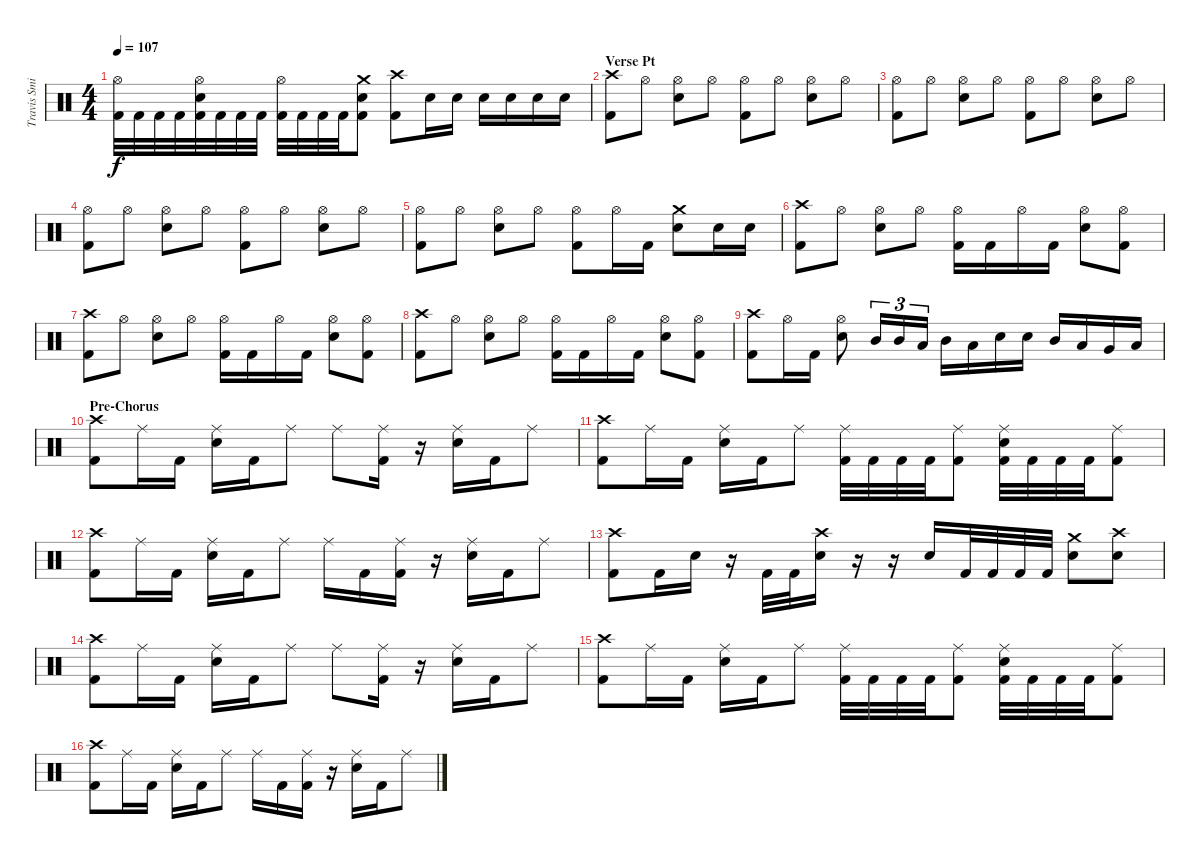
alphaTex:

\track ("Travis Smith" "Travis Smi") {instrument percussion}
\staff {score}
\articulation defaults
\ts (4 4)
\tempo 107
\clef neutral
\ks c
("Hi-Hat (open)" "Kick (hit) 2").32{dy f} "Kick (hit) 2".32 "Kick (hit) 2".32 "Kick (hit) 2".32 ("Hi-Hat (open)" "Electric Snare (hit)" "Kick (hit) 2").32 "Kick (hit) 2".32 "Kick (hit) 2".32 "Kick (hit) 2".32 ("Hi-Hat (open)" "Kick (hit) 2").32 "Kick (hit) 2".32 "Kick (hit) 2".32 "Kick (hit) 2".32 ("Crash medium (hit)" "Electric Snare (hit)" "Kick (hit) 2").8 ("Crash high (hit)" "Kick (hit) 2").8 "Electric Snare (hit)".16 "Electric Snare (hit)".16 "Electric Snare (hit)".16 "Electric Snare (hit)".16 "Electric Snare (hit)".16 "Electric Snare (hit)".16 |
\section ("" "Verse Pt")
("Crash high (hit)" "Kick (hit) 2").8 "Hi-Hat (open)".8 ("Hi-Hat (open)" "Electric Snare (hit)").8 "Hi-Hat (open)".8 ("Hi-Hat (open)" "Kick (hit) 2").8 "Hi-Hat (open)".8 ("Hi-Hat (open)" "Electric Snare (hit)").8 "Hi-Hat (open)".8 |
("Hi-Hat (open)" "Kick (hit) 2").8 "Hi-Hat (open)".8 ("Hi-Hat (open)" "Electric Snare (hit)").8 "Hi-Hat (open)".8 ("Hi-Hat (open)" "Kick (hit) 2").8 "Hi-Hat (open)".8 ("Hi-Hat (open)" "Electric Snare (hit)").8 "Hi-Hat (open)".8 |
("Hi-Hat (open)" "Kick (hit) 2").8 "Hi-Hat (open)".8 ("Hi-Hat (open)" "Electric Snare (hit)").8 "Hi-Hat (open)".8 ("Hi-Hat (open)" "Kick (hit) 2").8 "Hi-Hat (open)".8 ("Hi-Hat (open)" "Electric Snare (hit)").8 "Hi-Hat (open)".8 |
("Hi-Hat (open)" "Kick (hit) 2").8 "Hi-Hat (open)".8 ("Hi-Hat (open)" "Electric Snare (hit)").8 "Hi-Hat (open)".8 ("Hi-Hat (open)" "Kick (hit) 2").8 "Hi-Hat (open)".16 "Kick (hit) 2".16 ("Crash medium (hit)" "Electric Snare (hit)").8 "Electric Snare (hit)".16 "Electric Snare (hit)".16 |
("Crash high (hit)" "Kick (hit) 2").8 "Hi-Hat (open)".8 ("Hi-Hat (open)" "Electric Snare (hit)").8 "Hi-Hat (open)".8 ("Hi-Hat (open)" "Kick (hit) 2").16 "Kick (hit) 2".16 "Hi-Hat (open)".16 "Kick (hit) 2".16 ("Hi-Hat (open)" "Electric Snare (hit)").8 ("Hi-Hat (open)" "Kick (hit) 2").8 |
("Crash high (hit)" "Kick (hit) 2").8 "Hi-Hat (open)".8 ("Hi-Hat (open)" "Electric Snare (hit)").8 "Hi-Hat (open)".8 ("Hi-Hat (open)" "Kick (hit) 2").16 "Kick (hit) 2".16 "Hi-Hat (open)".16 "Kick (hit) 2".16 ("Hi-Hat (open)" "Electric Snare (hit)").8 ("Hi-Hat (open)" "Kick (hit) 2").8 |
("Crash high (hit)" "Kick (hit) 2").8 "Hi-Hat (open)".8 ("Hi-Hat (open)" "Electric Snare (hit)").8 "Hi-Hat (open)".8 ("Hi-Hat (open)" "Kick (hit) 2").16 "Kick (hit) 2".16 "Hi-Hat (open)".16 "Kick (hit) 2".16 ("Hi-Hat (open)" "Electric Snare (hit)").8 ("Hi-Hat (open)" "Kick (hit) 2").8 |
("Crash high (hit)" "Kick (hit) 2").8 "Hi-Hat (open)".16 "Kick (hit) 2".16 ("Hi-Hat (open)" "Electric Snare (hit)").8 "Mid Tom (hit)".16{tu (3 2)} "Mid Tom (hit)".16{tu (3 2)} "Low Tom (hit)".16{tu (3 2)} "Mid Tom (hit)".16 "Low Tom (hit)".16 "Electric Snare (hit)".16 "Electric Snare (hit)".16 "Mid Tom (hit)".16 "Low Tom (hit)".16 "Very Low Tom (hit)".16 "Low Floor Tom (hit)".16 |
\section ("" "Pre-Chorus")
("Crash high (hit)" "Kick (hit) 2").8 "Ride (middle)".16 "Kick (hit) 2".16 ("Ride (middle)" "Electric Snare (hit)").16 "Kick (hit) 2".16 "Ride (middle)".8 "Ride (middle)".8 ("Ride (middle)" "Kick (hit) 2").16 r.16 ("Ride (middle)" "Electric Snare (hit)").16 "Kick (hit) 2".16 "Ride (middle)".8 |
("Crash high (hit)" "Kick (hit) 2").8 "Ride (middle)".16 "Kick (hit) 2".16 ("Ride (middle)" "Electric Snare (hit)").16 "Kick (hit) 2".16 "Ride (middle)".8 ("Ride (middle)" "Kick (hit) 2").32 "Kick (hit) 2".32 "Kick (hit) 2".32 "Kick (hit) 2".32 ("Ride (middle)" "Kick (hit) 2").8 ("Ride (middle)" "Electric Snare (hit)" "Kick (hit) 2").32 "Kick (hit) 2".32 "Kick (hit) 2".32 "Kick (hit) 2".32 ("Ride (middle)" "Kick (hit) 2").8 |
("Crash high (hit)" "Kick (hit) 2").8 "Ride (middle)".16 "Kick (hit) 2".16 ("Ride (middle)" "Electric Snare (hit)").16 "Kick (hit) 2".16 "Ride (middle)".8 "Ride (middle)".16 "Kick (hit) 2".16 ("Ride (middle)" "Kick (hit) 2").16 r.16 ("Ride (middle)" "Electric Snare (hit)").16 "Kick (hit) 2".16 "Ride (middle)".8 |
("Crash high (hit)" "Kick (hit) 2").8 "Kick (hit) 2".16 "Electric Snare (hit)".16 r.16 "Kick (hit) 2".32 "Kick (hit) 2".32 ("Crash high (hit)" "Electric Snare (hit)").16 r.16 r.16 "Electric Snare (hit)".16 "Kick (hit) 2".32 "Kick (hit) 2".32 "Kick (hit) 2".32 "Kick (hit) 2".32 ("Crash medium (hit)" "Electric Snare (hit)").8 ("Crash high (hit)" "Electric Snare (hit)").8 |
("Crash high (hit)" "Kick (hit) 2").8 "Ride (middle)".16 "Kick (hit) 2".16 ("Ride (middle)" "Electric Snare (hit)").16 "Kick (hit) 2".16 "Ride (middle)".8 "Ride (middle)".8 ("Ride (middle)" "Kick (hit) 2").16 r.16 ("Ride (middle)" "Electric Snare (hit)").16 "Kick (hit) 2".16 "Ride (middle)".8 |
("Crash high (hit)" "Kick (hit) 2").8 "Ride (middle)".16 "Kick (hit) 2".16 ("Ride (middle)" "Electric Snare (hit)").16 "Kick (hit) 2".16 "Ride (middle)".8 ("Ride (middle)" "Kick (hit) 2").32 "Kick (hit) 2".32 "Kick (hit) 2".32 "Kick (hit) 2".32 ("Ride (middle)" "Kick (hit) 2").8 ("Ride (middle)" "Electric Snare (hit)" "Kick (hit) 2").32 "Kick (hit) 2".32 "Kick (hit) 2".32 "Kick (hit) 2".32 ("Ride (middle)" "Kick (hit) 2").8 |
("Crash high (hit)" "Kick (hit) 2").8 "Ride (middle)".16 "Kick (hit) 2".16 ("Ride (middle)" "Electric Snare (hit)").16 "Kick (hit) 2".16 "Ride (middle)".8 "Ride (middle)".16 "Kick (hit) 2".16 ("Ride (middle)" "Kick (hit) 2").16 r.16 ("Ride (middle)" "Electric Snare (hit)").16 "Kick (hit) 2".16 "Ride (middle)".8
